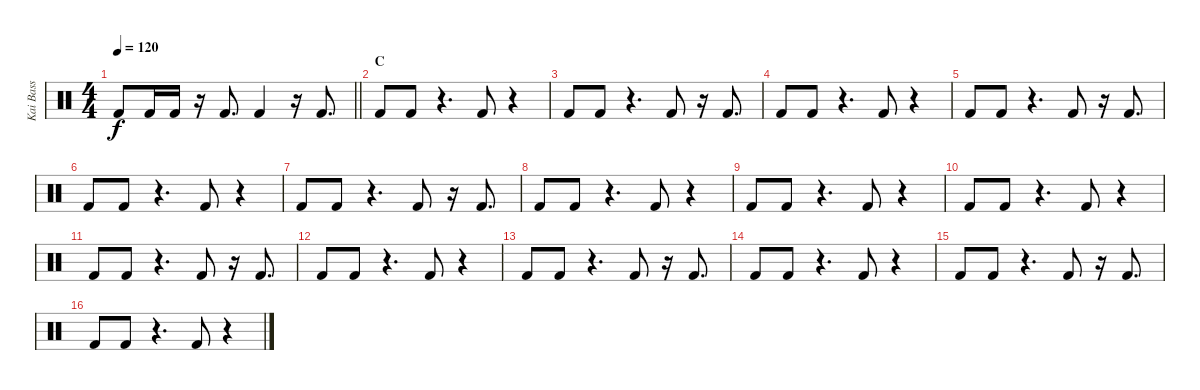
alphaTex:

\track ("Kai Bass" "Kai Bass") {instrument percussion}
\staff {score}
\articulation defaults
\ts (4 4)
\tempo 120
\clef neutral
\barLineRight lightlight
\ks c "Kick (hit) 2".8{dy f} "Kick (hit) 2".16 "Kick (hit) 2".16
r.16 "Kick (hit) 2".8{d} "Kick (hit) 2".4 r.16 "Kick (hit) 2".8{d} |
\section ("" "C")
"Kick (hit) 2".8 "Kick (hit) 2".8 r.4{d} "Kick (hit) 2".8 r.4 |
"Kick (hit) 2".8 "Kick (hit) 2".8 r.4{d} "Kick (hit) 2".8 r.16 "Kick (hit) 2".8{d} |
"Kick (hit) 2".8 "Kick (hit) 2".8 r.4{d} "Kick (hit) 2".8 r.4 |
"Kick (hit) 2".8 "Kick (hit) 2".8 r.4{d} "Kick (hit) 2".8 r.16 "Kick (hit) 2".8{d} |
"Kick (hit) 2".8 "Kick (hit) 2".8 r.4{d} "Kick (hit) 2".8 r.4 |
"Kick (hit) 2".8 "Kick (hit) 2".8 r.4{d} "Kick (hit) 2".8 r.16 "Kick (hit) 2".8{d} |
"Kick (hit) 2".8 "Kick (hit) 2".8 r.4{d} "Kick (hit) 2".8 r.4 |
"Kick (hit) 2".8 "Kick (hit) 2".8 r.4{d} "Kick (hit) 2".8 r.4 |
"Kick (hit) 2".8 "Kick (hit) 2".8 r.4{d} "Kick (hit) 2".8 r.4 |
"Kick (hit) 2".8 "Kick (hit) 2".8 r.4{d} "Kick (hit) 2".8 r.16 "Kick (hit) 2".8{d} |
"Kick (hit) 2".8 "Kick (hit) 2".8 r.4{d} "Kick (hit) 2".8 r.4 |
"Kick (hit) 2".8 "Kick (hit) 2".8 r.4{d} "Kick (hit) 2".8 r.16 "Kick (hit) 2".8{d} |
"Kick (hit) 2".8 "Kick (hit) 2".8 r.4{d} "Kick (hit) 2".8 r.4 |
"Kick (hit) 2".8 "Kick (hit) 2".8 r.4{d} "Kick (hit) 2".8 r.16 "Kick (hit) 2".8{d} |
"Kick (hit) 2".8 "Kick (hit) 2".8 r.4{d} "Kick (hit) 2".8 r.4
